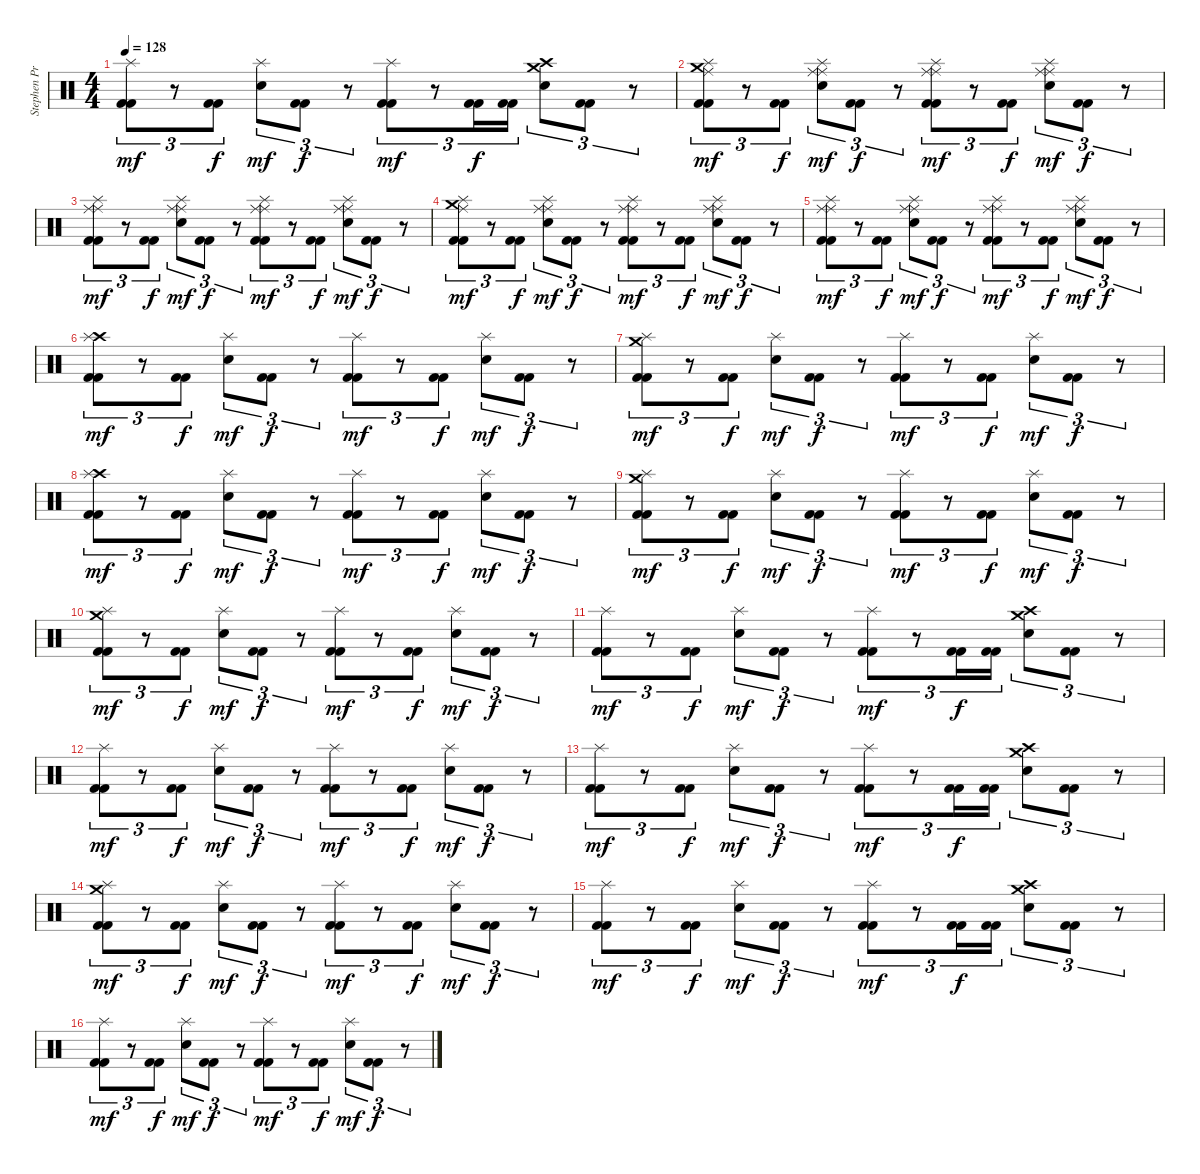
\track ("Stephen Priestly  (Drums)" "Stephen Pr") {instrument percussion}
\staff {score}
\articulation defaults
\ts (4 4)
\tempo 128
\clef neutral
\ks c
("Splash (hit)" "Kick (hit) 2" "Kick (hit) 2").8{tu (3 2) dy mf} r.8{tu (3 2)} ("Kick (hit) 2" "Kick (hit) 2").8{tu (3 2) dy f} ("Splash (hit)" "Electric Snare (hit)").8{tu (3 2) dy mf} ("Kick (hit) 2" "Kick (hit) 2").8{tu (3 2) dy f} r.8{tu (3 2)} ("Splash (hit)" "Kick (hit) 2" "Kick (hit) 2").8{tu (3 2) dy mf} r.8{tu (3 2)} ("Kick (hit) 2" "Kick (hit) 2").16{tu (3 2) dy f} ("Kick (hit) 2" "Kick (hit) 2").16{tu (3 2)} ("Crash medium (hit)" "Crash high (hit)" "Electric Snare (hit)").8{tu (3 2)} ("Kick (hit) 2" "Kick (hit) 2").8{tu (3 2)} r.8{tu (3 2)} |
("Ride (middle)" "Crash medium (hit)" "Splash (hit)" "Kick (hit) 2" "Kick (hit) 2").8{tu (3 2) dy mf} r.8{tu (3 2)} ("Kick (hit) 2" "Kick (hit) 2").8{tu (3 2) dy f} ("Ride (middle)" "Ride (middle)" "Splash (hit)" "Electric Snare (hit)").8{tu (3 2) dy mf} ("Kick (hit) 2" "Kick (hit) 2").8{tu (3 2) dy f} r.8{tu (3 2)} ("Ride (middle)" "Ride (middle)" "Splash (hit)" "Kick (hit) 2" "Kick (hit) 2").8{tu (3 2) dy mf} r.8{tu (3 2)} ("Kick (hit) 2" "Kick (hit) 2").8{tu (3 2) dy f} ("Ride (middle)" "Ride (middle)" "Splash (hit)" "Electric Snare (hit)").8{tu (3 2) dy mf} ("Kick (hit) 2" "Kick (hit) 2").8{tu (3 2) dy f} r.8{tu (3 2)} |
("Ride (middle)" "Ride (middle)" "Splash (hit)" "Kick (hit) 2" "Kick (hit) 2").8{tu (3 2) dy mf} r.8{tu (3 2)} ("Kick (hit) 2" "Kick (hit) 2").8{tu (3 2) dy f} ("Ride (middle)" "Ride (middle)" "Splash (hit)" "Electric Snare (hit)").8{tu (3 2) dy mf} ("Kick (hit) 2" "Kick (hit) 2").8{tu (3 2) dy f} r.8{tu (3 2)} ("Ride (middle)" "Ride (middle)" "Splash (hit)" "Kick (hit) 2" "Kick (hit) 2").8{tu (3 2) dy mf} r.8{tu (3 2)} ("Kick (hit) 2" "Kick (hit) 2").8{tu (3 2) dy f} ("Ride (middle)" "Ride (middle)" "Splash (hit)" "Electric Snare (hit)").8{tu (3 2) dy mf} ("Kick (hit) 2" "Kick (hit) 2").8{tu (3 2) dy f} r.8{tu (3 2)} |
("Ride (middle)" "Crash medium (hit)" "Splash (hit)" "Kick (hit) 2" "Kick (hit) 2").8{tu (3 2) dy mf} r.8{tu (3 2)} ("Kick (hit) 2" "Kick (hit) 2").8{tu (3 2) dy f} ("Ride (middle)" "Ride (middle)" "Splash (hit)" "Electric Snare (hit)").8{tu (3 2) dy mf} ("Kick (hit) 2" "Kick (hit) 2").8{tu (3 2) dy f} r.8{tu (3 2)} ("Ride (middle)" "Ride (middle)" "Splash (hit)" "Kick (hit) 2" "Kick (hit) 2").8{tu (3 2) dy mf} r.8{tu (3 2)} ("Kick (hit) 2" "Kick (hit) 2").8{tu (3 2) dy f} ("Ride (middle)" "Ride (middle)" "Splash (hit)" "Electric Snare (hit)").8{tu (3 2) dy mf} ("Kick (hit) 2" "Kick (hit) 2").8{tu (3 2) dy f} r.8{tu (3 2)} |
("Ride (middle)" "Ride (middle)" "Splash (hit)" "Kick (hit) 2" "Kick (hit) 2").8{tu (3 2) dy mf} r.8{tu (3 2)} ("Kick (hit) 2" "Kick (hit) 2").8{tu (3 2) dy f} ("Ride (middle)" "Ride (middle)" "Splash (hit)" "Electric Snare (hit)").8{tu (3 2) dy mf} ("Kick (hit) 2" "Kick (hit) 2").8{tu (3 2) dy f} r.8{tu (3 2)} ("Ride (middle)" "Ride (middle)" "Splash (hit)" "Kick (hit) 2" "Kick (hit) 2").8{tu (3 2) dy mf} r.8{tu (3 2)} ("Kick (hit) 2" "Kick (hit) 2").8{tu (3 2) dy f} ("Ride (middle)" "Ride (middle)" "Splash (hit)" "Electric Snare (hit)").8{tu (3 2) dy mf} ("Kick (hit) 2" "Kick (hit) 2").8{tu (3 2) dy f} r.8{tu (3 2)} |
("Crash high (hit)" "Splash (hit)" "Kick (hit) 2" "Kick (hit) 2").8{tu (3 2) dy mf} r.8{tu (3 2)} ("Kick (hit) 2" "Kick (hit) 2").8{tu (3 2) dy f} ("Splash (hit)" "Electric Snare (hit)").8{tu (3 2) dy mf} ("Kick (hit) 2" "Kick (hit) 2").8{tu (3 2) dy f} r.8{tu (3 2)} ("Splash (hit)" "Kick (hit) 2" "Kick (hit) 2").8{tu (3 2) dy mf} r.8{tu (3 2)} ("Kick (hit) 2" "Kick (hit) 2").8{tu (3 2) dy f} ("Splash (hit)" "Electric Snare (hit)").8{tu (3 2) dy mf} ("Kick (hit) 2" "Kick (hit) 2").8{tu (3 2) dy f} r.8{tu (3 2)} |
("Crash medium (hit)" "Splash (hit)" "Kick (hit) 2" "Kick (hit) 2").8{tu (3 2) dy mf} r.8{tu (3 2)} ("Kick (hit) 2" "Kick (hit) 2").8{tu (3 2) dy f} ("Splash (hit)" "Electric Snare (hit)").8{tu (3 2) dy mf} ("Kick (hit) 2" "Kick (hit) 2").8{tu (3 2) dy f} r.8{tu (3 2)} ("Splash (hit)" "Kick (hit) 2" "Kick (hit) 2").8{tu (3 2) dy mf} r.8{tu (3 2)} ("Kick (hit) 2" "Kick (hit) 2").8{tu (3 2) dy f} ("Splash (hit)" "Electric Snare (hit)").8{tu (3 2) dy mf} ("Kick (hit) 2" "Kick (hit) 2").8{tu (3 2) dy f} r.8{tu (3 2)} |
("Crash high (hit)" "Splash (hit)" "Kick (hit) 2" "Kick (hit) 2").8{tu (3 2) dy mf} r.8{tu (3 2)} ("Kick (hit) 2" "Kick (hit) 2").8{tu (3 2) dy f} ("Splash (hit)" "Electric Snare (hit)").8{tu (3 2) dy mf} ("Kick (hit) 2" "Kick (hit) 2").8{tu (3 2) dy f} r.8{tu (3 2)} ("Splash (hit)" "Kick (hit) 2" "Kick (hit) 2").8{tu (3 2) dy mf} r.8{tu (3 2)} ("Kick (hit) 2" "Kick (hit) 2").8{tu (3 2) dy f} ("Splash (hit)" "Electric Snare (hit)").8{tu (3 2) dy mf} ("Kick (hit) 2" "Kick (hit) 2").8{tu (3 2) dy f} r.8{tu (3 2)} |
("Crash medium (hit)" "Splash (hit)" "Kick (hit) 2" "Kick (hit) 2").8{tu (3 2) dy mf} r.8{tu (3 2)} ("Kick (hit) 2" "Kick (hit) 2").8{tu (3 2) dy f} ("Splash (hit)" "Electric Snare (hit)").8{tu (3 2) dy mf} ("Kick (hit) 2" "Kick (hit) 2").8{tu (3 2) dy f} r.8{tu (3 2)} ("Splash (hit)" "Kick (hit) 2" "Kick (hit) 2").8{tu (3 2) dy mf} r.8{tu (3 2)} ("Kick (hit) 2" "Kick (hit) 2").8{tu (3 2) dy f} ("Splash (hit)" "Electric Snare (hit)").8{tu (3 2) dy mf} ("Kick (hit) 2" "Kick (hit) 2").8{tu (3 2) dy f} r.8{tu (3 2)} |
("Crash medium (hit)" "Splash (hit)" "Kick (hit) 2" "Kick (hit) 2").8{tu (3 2) dy mf} r.8{tu (3 2)} ("Kick (hit) 2" "Kick (hit) 2").8{tu (3 2) dy f} ("Splash (hit)" "Electric Snare (hit)").8{tu (3 2) dy mf} ("Kick (hit) 2" "Kick (hit) 2").8{tu (3 2) dy f} r.8{tu (3 2)} ("Splash (hit)" "Kick (hit) 2" "Kick (hit) 2").8{tu (3 2) dy mf} r.8{tu (3 2)} ("Kick (hit) 2" "Kick (hit) 2").8{tu (3 2) dy f} ("Splash (hit)" "Electric Snare (hit)").8{tu (3 2) dy mf} ("Kick (hit) 2" "Kick (hit) 2").8{tu (3 2) dy f} r.8{tu (3 2)} |
("Splash (hit)" "Kick (hit) 2" "Kick (hit) 2").8{tu (3 2) dy mf} r.8{tu (3 2)} ("Kick (hit) 2" "Kick (hit) 2").8{tu (3 2) dy f} ("Splash (hit)" "Electric Snare (hit)").8{tu (3 2) dy mf} ("Kick (hit) 2" "Kick (hit) 2").8{tu (3 2) dy f} r.8{tu (3 2)} ("Splash (hit)" "Kick (hit) 2" "Kick (hit) 2").8{tu (3 2) dy mf} r.8{tu (3 2)} ("Kick (hit) 2" "Kick (hit) 2").16{tu (3 2) dy f} ("Kick (hit) 2" "Kick (hit) 2").16{tu (3 2)} ("Crash medium (hit)" "Crash high (hit)" "Electric Snare (hit)").8{tu (3 2)} ("Kick (hit) 2" "Kick (hit) 2").8{tu (3 2)} r.8{tu (3 2)} |
("Splash (hit)" "Kick (hit) 2" "Kick (hit) 2").8{tu (3 2) dy mf} r.8{tu (3 2)} ("Kick (hit) 2" "Kick (hit) 2").8{tu (3 2) dy f} ("Splash (hit)" "Electric Snare (hit)").8{tu (3 2) dy mf} ("Kick (hit) 2" "Kick (hit) 2").8{tu (3 2) dy f} r.8{tu (3 2)} ("Splash (hit)" "Kick (hit) 2" "Kick (hit) 2").8{tu (3 2) dy mf} r.8{tu (3 2)} ("Kick (hit) 2" "Kick (hit) 2").8{tu (3 2) dy f} ("Splash (hit)" "Electric Snare (hit)").8{tu (3 2) dy mf} ("Kick (hit) 2" "Kick (hit) 2").8{tu (3 2) dy f} r.8{tu (3 2)} |
("Splash (hit)" "Kick (hit) 2" "Kick (hit) 2").8{tu (3 2) dy mf} r.8{tu (3 2)} ("Kick (hit) 2" "Kick (hit) 2").8{tu (3 2) dy f} ("Splash (hit)" "Electric Snare (hit)").8{tu (3 2) dy mf} ("Kick (hit) 2" "Kick (hit) 2").8{tu (3 2) dy f} r.8{tu (3 2)} ("Splash (hit)" "Kick (hit) 2" "Kick (hit) 2").8{tu (3 2) dy mf} r.8{tu (3 2)} ("Kick (hit) 2" "Kick (hit) 2").16{tu (3 2) dy f} ("Kick (hit) 2" "Kick (hit) 2").16{tu (3 2)} ("Crash medium (hit)" "Crash high (hit)" "Electric Snare (hit)").8{tu (3 2)} ("Kick (hit) 2" "Kick (hit) 2").8{tu (3 2)} r.8{tu (3 2)} |
("Crash medium (hit)" "Splash (hit)" "Kick (hit) 2" "Kick (hit) 2").8{tu (3 2) dy mf} r.8{tu (3 2)} ("Kick (hit) 2" "Kick (hit) 2").8{tu (3 2) dy f} ("Splash (hit)" "Electric Snare (hit)").8{tu (3 2) dy mf} ("Kick (hit) 2" "Kick (hit) 2").8{tu (3 2) dy f} r.8{tu (3 2)} ("Splash (hit)" "Kick (hit) 2" "Kick (hit) 2").8{tu (3 2) dy mf} r.8{tu (3 2)} ("Kick (hit) 2" "Kick (hit) 2").8{tu (3 2) dy f} ("Splash (hit)" "Electric Snare (hit)").8{tu (3 2) dy mf} ("Kick (hit) 2" "Kick (hit) 2").8{tu (3 2) dy f} r.8{tu (3 2)} |
("Splash (hit)" "Kick (hit) 2" "Kick (hit) 2").8{tu (3 2) dy mf} r.8{tu (3 2)} ("Kick (hit) 2" "Kick (hit) 2").8{tu (3 2) dy f} ("Splash (hit)" "Electric Snare (hit)").8{tu (3 2) dy mf} ("Kick (hit) 2" "Kick (hit) 2").8{tu (3 2) dy f} r.8{tu (3 2)} ("Splash (hit)" "Kick (hit) 2" "Kick (hit) 2").8{tu (3 2) dy mf} r.8{tu (3 2)} ("Kick (hit) 2" "Kick (hit) 2").16{tu (3 2) dy f} ("Kick (hit) 2" "Kick (hit) 2").16{tu (3 2)} ("Crash medium (hit)" "Crash high (hit)" "Electric Snare (hit)").8{tu (3 2)} ("Kick (hit) 2" "Kick (hit) 2").8{tu (3 2)} r.8{tu (3 2)} |
("Splash (hit)" "Kick (hit) 2" "Kick (hit) 2").8{tu (3 2) dy mf} r.8{tu (3 2)} ("Kick (hit) 2" "Kick (hit) 2").8{tu (3 2) dy f} ("Splash (hit)" "Electric Snare (hit)").8{tu (3 2) dy mf} ("Kick (hit) 2" "Kick (hit) 2").8{tu (3 2) dy f} r.8{tu (3 2)} ("Splash (hit)" "Kick (hit) 2" "Kick (hit) 2").8{tu (3 2) dy mf} r.8{tu (3 2)} ("Kick (hit) 2" "Kick (hit) 2").8{tu (3 2) dy f} ("Splash (hit)" "Electric Snare (hit)").8{tu (3 2) dy mf} ("Kick (hit) 2" "Kick (hit) 2").8{tu (3 2) dy f} r.8{tu (3 2)}
